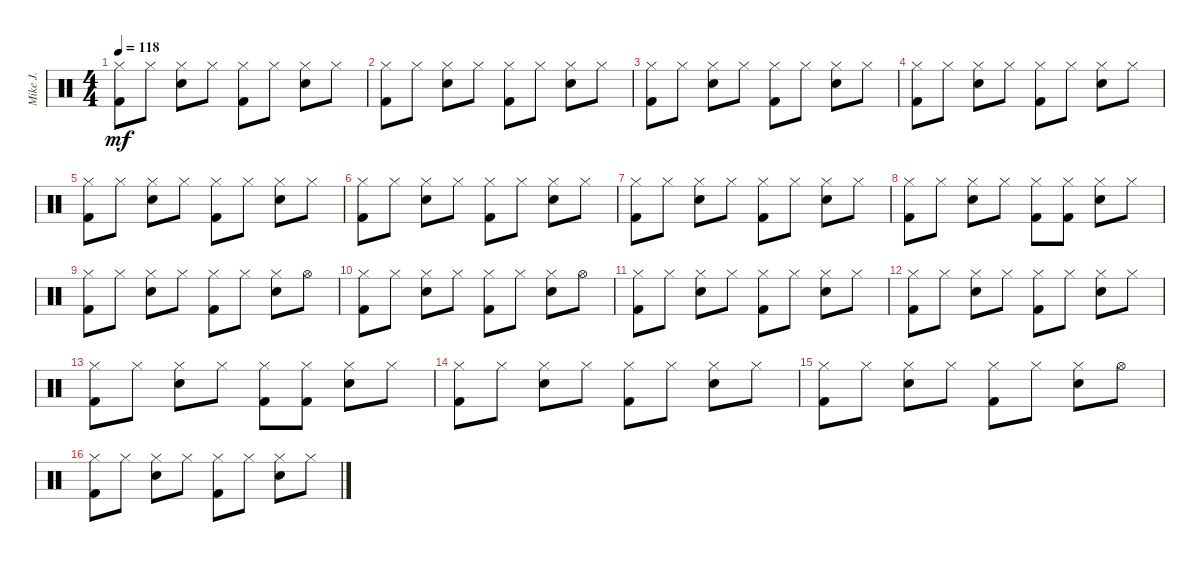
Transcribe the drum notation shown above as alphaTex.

\track ("Mike J." "Mike J.") {instrument percussion}
\staff {score}
\articulation defaults
\ts (4 4)
\tempo 118
\clef neutral
\ks c
("Hi-Hat (closed)" "Kick (hit) 2").8{dy mf} "Hi-Hat (closed)".8 ("Hi-Hat (closed)" "Electric Snare (hit)").8 "Hi-Hat (closed)".8 ("Hi-Hat (closed)" "Kick (hit) 2").8 "Hi-Hat (closed)".8 ("Hi-Hat (closed)" "Electric Snare (hit)").8 "Hi-Hat (closed)".8 |
("Hi-Hat (closed)" "Kick (hit) 2").8 "Hi-Hat (closed)".8 ("Hi-Hat (closed)" "Electric Snare (hit)").8 "Hi-Hat (closed)".8 ("Hi-Hat (closed)" "Kick (hit) 2").8 "Hi-Hat (closed)".8 ("Hi-Hat (closed)" "Electric Snare (hit)").8 "Hi-Hat (closed)".8 |
("Hi-Hat (closed)" "Kick (hit) 2").8 "Hi-Hat (closed)".8 ("Hi-Hat (closed)" "Electric Snare (hit)").8 "Hi-Hat (closed)".8 ("Hi-Hat (closed)" "Kick (hit) 2").8 "Hi-Hat (closed)".8 ("Hi-Hat (closed)" "Electric Snare (hit)").8 "Hi-Hat (closed)".8 |
("Hi-Hat (closed)" "Kick (hit) 2").8 "Hi-Hat (closed)".8 ("Hi-Hat (closed)" "Electric Snare (hit)").8 "Hi-Hat (closed)".8 ("Hi-Hat (closed)" "Kick (hit) 2").8 "Hi-Hat (closed)".8 ("Hi-Hat (closed)" "Electric Snare (hit)").8 "Hi-Hat (closed)".8 |
("Hi-Hat (closed)" "Kick (hit) 2").8 "Hi-Hat (closed)".8 ("Hi-Hat (closed)" "Electric Snare (hit)").8 "Hi-Hat (closed)".8 ("Hi-Hat (closed)" "Kick (hit) 2").8 "Hi-Hat (closed)".8 ("Hi-Hat (closed)" "Electric Snare (hit)").8 "Hi-Hat (closed)".8 |
("Hi-Hat (closed)" "Kick (hit) 2").8 "Hi-Hat (closed)".8 ("Hi-Hat (closed)" "Electric Snare (hit)").8 "Hi-Hat (closed)".8 ("Hi-Hat (closed)" "Kick (hit) 2").8 "Hi-Hat (closed)".8 ("Hi-Hat (closed)" "Electric Snare (hit)").8 "Hi-Hat (closed)".8 |
("Hi-Hat (closed)" "Kick (hit) 2").8 "Hi-Hat (closed)".8 ("Hi-Hat (closed)" "Electric Snare (hit)").8 "Hi-Hat (closed)".8 ("Hi-Hat (closed)" "Kick (hit) 2").8 "Hi-Hat (closed)".8 ("Hi-Hat (closed)" "Electric Snare (hit)").8 "Hi-Hat (closed)".8 |
("Hi-Hat (closed)" "Kick (hit) 2").8 "Hi-Hat (closed)".8 ("Hi-Hat (closed)" "Electric Snare (hit)").8 "Hi-Hat (closed)".8 ("Hi-Hat (closed)" "Kick (hit) 2").8 ("Hi-Hat (closed)" "Kick (hit) 2").8 ("Hi-Hat (closed)" "Electric Snare (hit)").8 "Hi-Hat (closed)".8 |
("Hi-Hat (closed)" "Kick (hit) 2").8 "Hi-Hat (closed)".8 ("Hi-Hat (closed)" "Electric Snare (hit)").8 "Hi-Hat (closed)".8 ("Hi-Hat (closed)" "Kick (hit) 2").8 "Hi-Hat (closed)".8 ("Hi-Hat (closed)" "Electric Snare (hit)").8 "Hi-Hat (open)".8 |
("Hi-Hat (closed)" "Kick (hit) 2").8 "Hi-Hat (closed)".8 ("Hi-Hat (closed)" "Electric Snare (hit)").8 "Hi-Hat (closed)".8 ("Hi-Hat (closed)" "Kick (hit) 2").8 "Hi-Hat (closed)".8 ("Hi-Hat (closed)" "Electric Snare (hit)").8 "Hi-Hat (open)".8 |
("Hi-Hat (closed)" "Kick (hit) 2").8 "Hi-Hat (closed)".8 ("Hi-Hat (closed)" "Electric Snare (hit)").8 "Hi-Hat (closed)".8 ("Hi-Hat (closed)" "Kick (hit) 2").8 "Hi-Hat (closed)".8 ("Hi-Hat (closed)" "Electric Snare (hit)").8 "Hi-Hat (closed)".8 |
("Hi-Hat (closed)" "Kick (hit) 2").8 "Hi-Hat (closed)".8 ("Hi-Hat (closed)" "Electric Snare (hit)").8 "Hi-Hat (closed)".8 ("Hi-Hat (closed)" "Kick (hit) 2").8 "Hi-Hat (closed)".8 ("Hi-Hat (closed)" "Electric Snare (hit)").8 "Hi-Hat (closed)".8 |
("Hi-Hat (closed)" "Kick (hit) 2").8 "Hi-Hat (closed)".8 ("Hi-Hat (closed)" "Electric Snare (hit)").8 "Hi-Hat (closed)".8 ("Hi-Hat (closed)" "Kick (hit) 2").8 ("Hi-Hat (closed)" "Kick (hit) 2").8 ("Hi-Hat (closed)" "Electric Snare (hit)").8 "Hi-Hat (closed)".8 |
("Hi-Hat (closed)" "Kick (hit) 2").8 "Hi-Hat (closed)".8 ("Hi-Hat (closed)" "Electric Snare (hit)").8 "Hi-Hat (closed)".8 ("Hi-Hat (closed)" "Kick (hit) 2").8 "Hi-Hat (closed)".8 ("Hi-Hat (closed)" "Electric Snare (hit)").8 "Hi-Hat (closed)".8 |
("Hi-Hat (closed)" "Kick (hit) 2").8 "Hi-Hat (closed)".8 ("Hi-Hat (closed)" "Electric Snare (hit)").8 "Hi-Hat (closed)".8 ("Hi-Hat (closed)" "Kick (hit) 2").8 "Hi-Hat (closed)".8 ("Hi-Hat (closed)" "Electric Snare (hit)").8 "Hi-Hat (open)".8 |
("Hi-Hat (closed)" "Kick (hit) 2").8 "Hi-Hat (closed)".8 ("Hi-Hat (closed)" "Electric Snare (hit)").8 "Hi-Hat (closed)".8 ("Hi-Hat (closed)" "Kick (hit) 2").8 "Hi-Hat (closed)".8 ("Hi-Hat (closed)" "Electric Snare (hit)").8 "Hi-Hat (closed)".8
